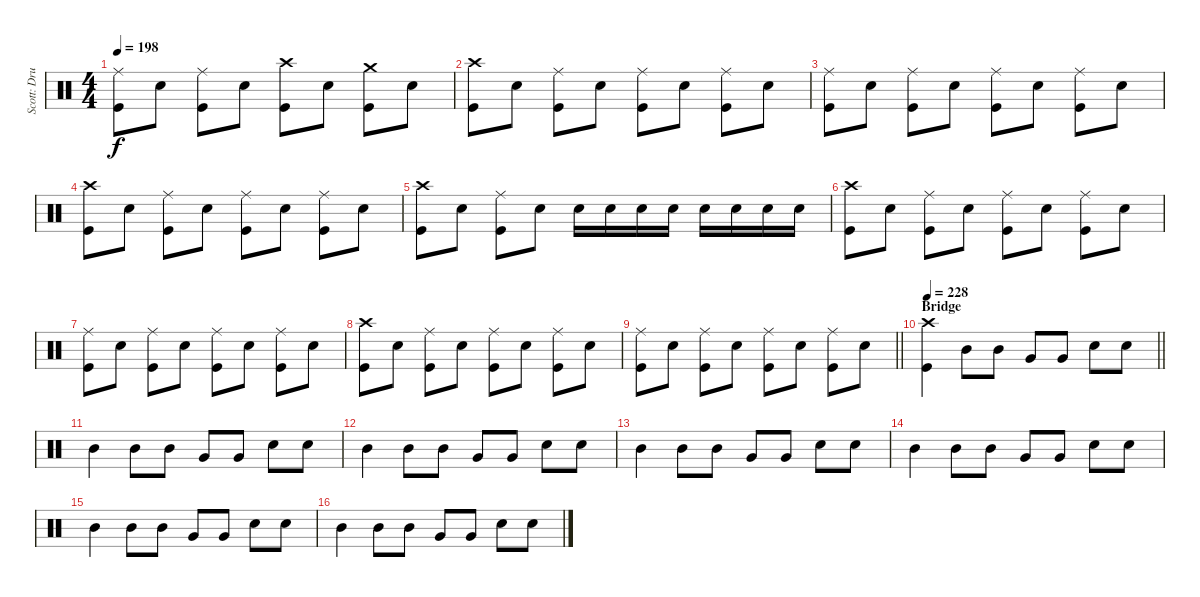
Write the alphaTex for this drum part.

\track ("Scott: Drums" "Scott: Dru") {instrument percussion}
\staff {score}
\articulation defaults
\ts (4 4)
\tempo 198
\clef neutral
\ks c
("Ride (middle)" "Kick (hit)").8{dy f} "Electric Snare (hit)".8 ("Ride (middle)" "Kick (hit)").8 "Electric Snare (hit)".8 ("Crash high (hit)" "Kick (hit)").8 "Electric Snare (hit)".8 ("Crash medium (hit)" "Kick (hit)").8 "Electric Snare (hit)".8 |
("Crash high (hit)" "Kick (hit)").8 "Electric Snare (hit)".8 ("Ride (middle)" "Kick (hit)").8 "Electric Snare (hit)".8 ("Ride (middle)" "Kick (hit)").8 "Electric Snare (hit)".8 ("Ride (middle)" "Kick (hit)").8 "Electric Snare (hit)".8 |
("Ride (middle)" "Kick (hit)").8 "Electric Snare (hit)".8 ("Ride (middle)" "Kick (hit)").8 "Electric Snare (hit)".8 ("Ride (middle)" "Kick (hit)").8 "Electric Snare (hit)".8 ("Ride (middle)" "Kick (hit)").8 "Electric Snare (hit)".8 |
("Crash high (hit)" "Kick (hit)").8 "Electric Snare (hit)".8 ("Ride (middle)" "Kick (hit)").8 "Electric Snare (hit)".8 ("Ride (middle)" "Kick (hit)").8 "Electric Snare (hit)".8 ("Ride (middle)" "Kick (hit)").8 "Electric Snare (hit)".8 |
("Crash high (hit)" "Kick (hit)").8 "Electric Snare (hit)".8 ("Ride (middle)" "Kick (hit)").8 "Electric Snare (hit)".8 "Electric Snare (hit)".16 "Electric Snare (hit)".16 "Electric Snare (hit)".16 "Electric Snare (hit)".16 "Electric Snare (hit)".16 "Electric Snare (hit)".16 "Electric Snare (hit)".16 "Electric Snare (hit)".16 |
("Crash high (hit)" "Kick (hit)").8 "Electric Snare (hit)".8 ("Ride (middle)" "Kick (hit)").8 "Electric Snare (hit)".8 ("Ride (middle)" "Kick (hit)").8 "Electric Snare (hit)".8 ("Ride (middle)" "Kick (hit)").8 "Electric Snare (hit)".8 |
("Ride (middle)" "Kick (hit)").8 "Electric Snare (hit)".8 ("Ride (middle)" "Kick (hit)").8 "Electric Snare (hit)".8 ("Ride (middle)" "Kick (hit)").8 "Electric Snare (hit)".8 ("Ride (middle)" "Kick (hit)").8 "Electric Snare (hit)".8 |
("Crash high (hit)" "Kick (hit)").8 "Electric Snare (hit)".8 ("Ride (middle)" "Kick (hit)").8 "Electric Snare (hit)".8 ("Ride (middle)" "Kick (hit)").8 "Electric Snare (hit)".8 ("Ride (middle)" "Kick (hit)").8 "Electric Snare (hit)".8 |
\barLineRight lightlight
("Ride (middle)" "Kick (hit)").8 "Electric Snare (hit)".8 ("Ride (middle)" "Kick (hit)").8 "Electric Snare (hit)".8 ("Ride (middle)" "Kick (hit)").8 "Electric Snare (hit)".8 ("Ride (middle)" "Kick (hit)").8 "Electric Snare (hit)".8 |
\section ("" "Bridge")
\tempo 228
\barLineRight lightlight
("Crash high (hit)" "Kick (hit)").4 "Mid Tom (hit)".8 "Mid Tom (hit)".8 "Very Low Tom (hit)".8 "Very Low Tom (hit)".8 "Electric Snare (hit)".8 "Electric Snare (hit)".8 |
\section ("" "")
"Mid Tom (hit)".4 "Mid Tom (hit)".8 "Mid Tom (hit)".8 "Very Low Tom (hit)".8 "Very Low Tom (hit)".8 "Electric Snare (hit)".8 "Electric Snare (hit)".8 |
"Mid Tom (hit)".4 "Mid Tom (hit)".8 "Mid Tom (hit)".8 "Very Low Tom (hit)".8 "Very Low Tom (hit)".8 "Electric Snare (hit)".8 "Electric Snare (hit)".8 |
"Mid Tom (hit)".4 "Mid Tom (hit)".8 "Mid Tom (hit)".8 "Very Low Tom (hit)".8 "Very Low Tom (hit)".8 "Electric Snare (hit)".8 "Electric Snare (hit)".8 |
"Mid Tom (hit)".4 "Mid Tom (hit)".8 "Mid Tom (hit)".8 "Very Low Tom (hit)".8 "Very Low Tom (hit)".8 "Electric Snare (hit)".8 "Electric Snare (hit)".8 |
"Mid Tom (hit)".4 "Mid Tom (hit)".8 "Mid Tom (hit)".8 "Very Low Tom (hit)".8 "Very Low Tom (hit)".8 "Electric Snare (hit)".8 "Electric Snare (hit)".8 |
"Mid Tom (hit)".4 "Mid Tom (hit)".8 "Mid Tom (hit)".8 "Very Low Tom (hit)".8 "Very Low Tom (hit)".8 "Electric Snare (hit)".8 "Electric Snare (hit)".8
